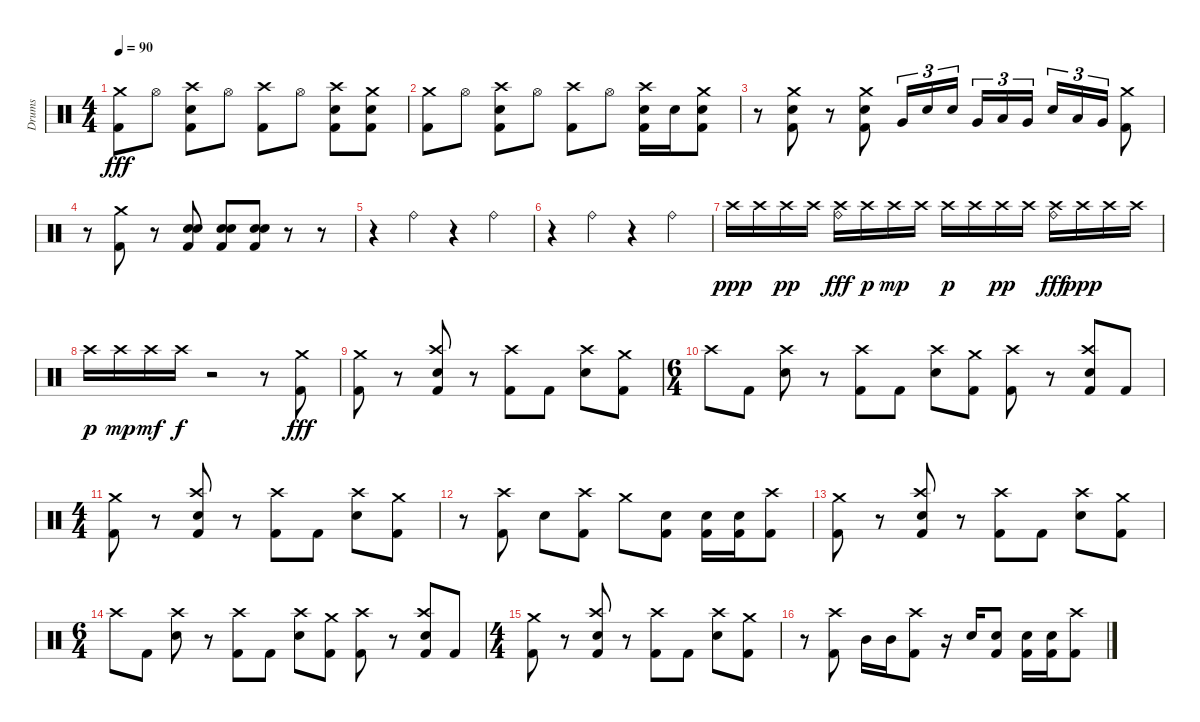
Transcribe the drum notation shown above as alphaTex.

\track ("Drums" "Drums") {instrument percussion}
\staff {score}
\articulation defaults
\ts (4 4)
\tempo 90
\clef neutral
\ks c
("Crash medium (hit)" "Kick (hit) 2").8{dy fff} "Hi-Hat (open)".8 ("Crash high (hit)" "Snare (hit) 2" "Kick (hit) 2").8 "Hi-Hat (open)".8 ("Crash high (hit)" "Kick (hit) 2").8 "Hi-Hat (open)".8 ("Crash high (hit)" "Snare (hit) 2" "Kick (hit) 2").8 ("Crash medium (hit)" "Snare (hit) 2" "Kick (hit) 2").8 |
("Crash medium (hit)" "Kick (hit) 2").8 "Hi-Hat (open)".8 ("Crash high (hit)" "Snare (hit) 2" "Kick (hit) 2").8 "Hi-Hat (open)".8 ("Crash high (hit)" "Kick (hit) 2").8 "Hi-Hat (open)".8 ("Crash high (hit)" "Electric Snare (hit)" "Kick (hit) 2").16 "Electric Snare (hit)".16 ("Crash medium (hit)" "Snare (hit) 2" "Kick (hit) 2").8 |
r.8 ("Crash medium (hit)" "Snare (hit) 2" "Kick (hit) 2").8 r.8 ("Crash medium (hit)" "Snare (hit) 2" "Kick (hit) 2").8 "Very Low Tom (hit)".16{tu (3 2)} "Electric Snare (hit)".16{tu (3 2)} "Electric Snare (hit)".16{tu (3 2) beam splitsecondary} "Very Low Tom (hit)".16{tu (3 2)} "Low Tom (hit)".16{tu (3 2)} "Very Low Tom (hit)".16{tu (3 2)} "Electric Snare (hit)".16{tu (3 2)} "Low Tom (hit)".16{tu (3 2)} "Very Low Tom (hit)".16{tu (3 2)} ("Crash medium (hit)" "Kick (hit) 2").8 |
r.8 ("Crash medium (hit)" "Kick (hit) 2").8 r.8 ("Snare (hit) 2" "Electric Snare (hit)" "Kick (hit) 2").8 ("Snare (hit) 2" "Electric Snare (hit)" "Kick (hit) 2").8 ("Snare (hit) 2" "Electric Snare (hit)" "Kick (hit) 2").8 r.8 r.8 |
r.4 "Ride (bell)".4 r.4 "Ride (bell)".4 |
r.4 "Ride (bell)".4 r.4 "Ride (bell)".4 |
"Crash high (hit)".16{dy ppp} "Crash high (hit)".16 "Crash high (hit)".16{dy pp} "Crash high (hit)".16 ("Crash high (hit)" "Ride (bell)").16{dy fff} "Crash high (hit)".16{dy p} "Crash high (hit)".16{dy mp} "Crash high (hit)".16 "Crash high (hit)".16{dy p} "Crash high (hit)".16 "Crash high (hit)".16{dy pp} "Crash high (hit)".16 ("Crash high (hit)" "Ride (bell)").16{dy fff} "Crash high (hit)".16{dy ppp} "Crash high (hit)".16 "Crash high (hit)".16 |
"Crash high (hit)".16{dy p} "Crash high (hit)".16{dy mp} "Crash high (hit)".16{dy mf} "Crash high (hit)".16{dy f} r.2 r.8 ("Crash medium (hit)" "Kick (hit) 2").8{dy fff} |
("Crash medium (hit)" "Kick (hit) 2").8 r.8 ("Crash high (hit)" "Electric Snare (hit)" "Kick (hit) 2").8 r.8 ("Crash high (hit)" "Kick (hit) 2").8 "Kick (hit) 2".8 ("Crash high (hit)" "Electric Snare (hit)").8 ("Crash medium (hit)" "Kick (hit) 2").8 |
\ts (6 4)
"Crash high (hit)".8 "Kick (hit) 2".8 ("Crash high (hit)" "Electric Snare (hit)").8 r.8 ("Crash high (hit)" "Kick (hit) 2").8 "Kick (hit) 2".8 ("Crash high (hit)" "Electric Snare (hit)").8 ("Crash medium (hit)" "Kick (hit) 2").8 ("Crash high (hit)" "Kick (hit) 2").8 r.8 ("Crash high (hit)" "Electric Snare (hit)" "Kick (hit) 2").8 "Kick (hit) 2".8 |
\ts (4 4)
("Crash medium (hit)" "Kick (hit) 2").8 r.8 ("Crash high (hit)" "Electric Snare (hit)" "Kick (hit) 2").8 r.8 ("Crash high (hit)" "Kick (hit) 2").8 "Kick (hit) 2".8 ("Crash high (hit)" "Electric Snare (hit)").8 ("Crash medium (hit)" "Kick (hit) 2").8 |
r.8 ("Crash high (hit)" "Kick (hit) 2").8 "Electric Snare (hit)".8 ("Crash high (hit)" "Kick (hit) 2").8 "Crash medium (hit)".8 ("Electric Snare (hit)" "Kick (hit) 2").8 ("Electric Snare (hit)" "Kick (hit) 2").16 ("Electric Snare (hit)" "Kick (hit) 2").16 ("Crash high (hit)" "Kick (hit) 2").8 |
("Crash medium (hit)" "Kick (hit) 2").8 r.8 ("Crash high (hit)" "Electric Snare (hit)" "Kick (hit) 2").8 r.8 ("Crash high (hit)" "Kick (hit) 2").8 "Kick (hit) 2".8 ("Crash high (hit)" "Electric Snare (hit)").8 ("Crash medium (hit)" "Kick (hit) 2").8 |
\ts (6 4)
"Crash high (hit)".8 "Kick (hit) 2".8 ("Crash high (hit)" "Electric Snare (hit)").8 r.8 ("Crash high (hit)" "Kick (hit) 2").8 "Kick (hit) 2".8 ("Crash high (hit)" "Electric Snare (hit)").8 ("Crash medium (hit)" "Kick (hit) 2").8 ("Crash high (hit)" "Kick (hit) 2").8 r.8 ("Crash high (hit)" "Electric Snare (hit)" "Kick (hit) 2").8 "Kick (hit) 2".8 |
\ts (4 4)
("Crash medium (hit)" "Kick (hit) 2").8 r.8 ("Crash high (hit)" "Electric Snare (hit)" "Kick (hit) 2").8 r.8 ("Crash high (hit)" "Kick (hit) 2").8 "Kick (hit) 2".8 ("Crash high (hit)" "Electric Snare (hit)").8 ("Crash medium (hit)" "Kick (hit) 2").8 |
r.8 ("Crash high (hit)" "Kick (hit) 2").8 "Mid Tom (hit)".16 "Mid Tom (hit)".16 ("Crash high (hit)" "Kick (hit) 2").8 r.16 "Electric Snare (hit)".16 ("Electric Snare (hit)" "Kick (hit) 2").8 ("Electric Snare (hit)" "Kick (hit) 2").16 ("Electric Snare (hit)" "Kick (hit) 2").16 ("Crash high (hit)" "Kick (hit) 2").8
